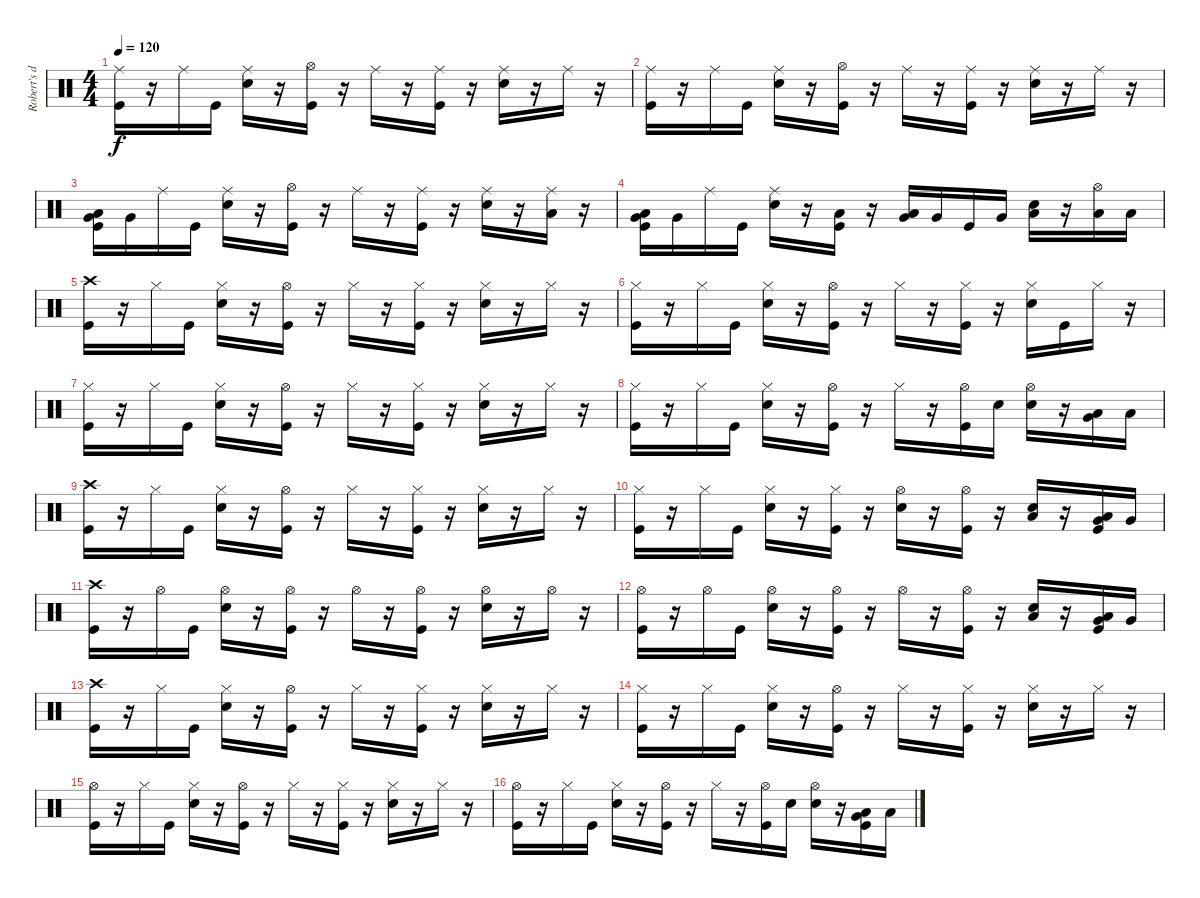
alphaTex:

\track ("Robert's drums" "Robert's d") {instrument percussion}
\staff {score}
\articulation defaults
\ts (4 4)
\tempo 120
\clef neutral
\ks c
("Ride (middle)" "Kick (hit)").16{dy f} r.16 "Ride (middle)".16 "Kick (hit)".16 ("Ride (middle)" "Electric Snare (hit)").16 r.16 ("Hi-Hat (open)" "Kick (hit)").16 r.16 "Ride (middle)".16 r.16 ("Kick (hit)" "Ride (middle)").16 r.16 ("Ride (middle)" "Electric Snare (hit)").16 r.16 "Ride (middle)".16 r.16 |
("Ride (middle)" "Kick (hit)").16 r.16 "Ride (middle)".16 "Kick (hit)".16 ("Ride (middle)" "Electric Snare (hit)").16 r.16 ("Hi-Hat (open)" "Kick (hit)").16 r.16 "Ride (middle)".16 r.16 ("Ride (middle)" "Kick (hit)").16 r.16 ("Ride (middle)" "Electric Snare (hit)").16 r.16 "Ride (middle)".16 r.16 |
("Very Low Tom (hit)" "Low Tom (hit)" "Kick (hit)").16 "Very Low Tom (hit)".16 "Ride (middle)".16 "Kick (hit)".16 ("Ride (middle)" "Electric Snare (hit)").16 r.16 ("Hi-Hat (open)" "Kick (hit)").16 r.16 "Ride (middle)".16 r.16 ("Ride (middle)" "Kick (hit)").16 r.16 ("Electric Snare (hit)" "Ride (middle)").16 r.16 ("Low Floor Tom (hit)" "Ride (middle)").16 r.16 |
("Very Low Tom (hit)" "Low Tom (hit)" "Kick (hit)").16 "Very Low Tom (hit)".16 "Ride (middle)".16 "Kick (hit)".16 ("Electric Snare (hit)" "Ride (middle)").16 r.16 ("Low Floor Tom (hit)" "Kick (hit)").16 r.16 ("Very Low Tom (hit)" "Low Tom (hit)").16 "Very Low Tom (hit)".16 "Kick (hit)".16 "Very Low Tom (hit)".16 ("Low Tom (hit)" "Electric Snare (hit)").16 r.16 ("Low Tom (hit)" "Hi-Hat (open)").16 "Low Tom (hit)".16 |
("Crash high (hit)" "Kick (hit)").16 r.16 "Hi-Hat (closed)".16 "Kick (hit)".16 ("Hi-Hat (closed)" "Electric Snare (hit)").16 r.16 ("Hi-Hat (open)" "Kick (hit)").16 r.16 "Hi-Hat (closed)".16 r.16 ("Kick (hit)" "Hi-Hat (closed)").16 r.16 ("Hi-Hat (closed)" "Electric Snare (hit)").16 r.16 "Hi-Hat (closed)".16 r.16 |
("Hi-Hat (closed)" "Kick (hit)").16 r.16 "Hi-Hat (closed)".16 "Kick (hit)".16 ("Hi-Hat (closed)" "Electric Snare (hit)").16 r.16 ("Hi-Hat (open)" "Kick (hit)").16 r.16 "Hi-Hat (closed)".16 r.16 ("Kick (hit)" "Hi-Hat (closed)").16 r.16 ("Electric Snare (hit)" "Hi-Hat (closed)").16 "Kick (hit)".16 "Hi-Hat (closed)".16 r.16 |
("Kick (hit)" "Hi-Hat (closed)").16 r.16 "Hi-Hat (closed)".16 "Kick (hit)".16 ("Electric Snare (hit)" "Hi-Hat (closed)").16 r.16 ("Hi-Hat (open)" "Kick (hit)").16 r.16 "Hi-Hat (closed)".16 r.16 ("Hi-Hat (closed)" "Kick (hit)").16 r.16 ("Electric Snare (hit)" "Hi-Hat (closed)").16 r.16 "Hi-Hat (closed)".16 r.16 |
("Kick (hit)" "Hi-Hat (closed)").16 r.16 "Hi-Hat (closed)".16 "Kick (hit)".16 ("Hi-Hat (closed)" "Electric Snare (hit)").16 r.16 ("Hi-Hat (open)" "Kick (hit)").16 r.16 "Hi-Hat (closed)".16 r.16 ("Kick (hit)" "Hi-Hat (open)").16 "Electric Snare (hit)".16 ("Hi-Hat (open)" "Electric Snare (hit)").16 r.16 ("Low Floor Tom (hit)" "Very Low Tom (hit)").16 "Low Floor Tom (hit)".16 |
("Crash high (hit)" "Kick (hit)").16 r.16 "Hi-Hat (closed)".16 "Kick (hit)".16 ("Electric Snare (hit)" "Hi-Hat (closed)").16 r.16 ("Hi-Hat (open)" "Kick (hit)").16 r.16 "Hi-Hat (closed)".16 r.16 ("Kick (hit)" "Hi-Hat (closed)").16 r.16 ("Electric Snare (hit)" "Hi-Hat (closed)").16 r.16 "Hi-Hat (closed)".16 r.16 |
("Hi-Hat (closed)" "Kick (hit)").16 r.16 "Hi-Hat (closed)".16 "Kick (hit)".16 ("Hi-Hat (closed)" "Electric Snare (hit)").16 r.16 ("Kick (hit)" "Hi-Hat (closed)").16 r.16 ("Hi-Hat (open)" "Electric Snare (hit)").16 r.16 ("Hi-Hat (open)" "Kick (hit)").16 r.16 ("Low Tom (hit)" "Electric Snare (hit)").16 r.16 ("Low Tom (hit)" "Very Low Tom (hit)" "Kick (hit)").16 "Very Low Tom (hit)".16 |
("Crash high (hit)" "Kick (hit)").16 r.16 "Hi-Hat (open)".16 "Kick (hit)".16 ("Hi-Hat (open)" "Electric Snare (hit)").16 r.16 ("Hi-Hat (open)" "Kick (hit)").16 r.16 "Hi-Hat (open)".16 r.16 ("Hi-Hat (open)" "Kick (hit)").16 r.16 ("Hi-Hat (open)" "Electric Snare (hit)").16 r.16 "Hi-Hat (open)".16 r.16 |
("Kick (hit)" "Hi-Hat (open)").16 r.16 "Hi-Hat (open)".16 "Kick (hit)".16 ("Hi-Hat (open)" "Electric Snare (hit)").16 r.16 ("Hi-Hat (open)" "Kick (hit)").16 r.16 "Hi-Hat (open)".16 r.16 ("Kick (hit)" "Hi-Hat (open)").16 r.16 ("Low Tom (hit)" "Electric Snare (hit)").16 r.16 ("Low Tom (hit)" "Very Low Tom (hit)" "Kick (hit)").16 "Very Low Tom (hit)".16 |
("Crash high (hit)" "Kick (hit)").16 r.16 "Hi-Hat (closed)".16 "Kick (hit)".16 ("Hi-Hat (closed)" "Electric Snare (hit)").16 r.16 ("Hi-Hat (open)" "Kick (hit)").16 r.16 "Hi-Hat (closed)".16 r.16 ("Kick (hit)" "Hi-Hat (closed)").16 r.16 ("Hi-Hat (closed)" "Electric Snare (hit)").16 r.16 "Hi-Hat (closed)".16 r.16 |
("Hi-Hat (closed)" "Kick (hit)").16 r.16 "Hi-Hat (closed)".16 "Kick (hit)".16 ("Hi-Hat (closed)" "Electric Snare (hit)").16 r.16 ("Hi-Hat (open)" "Kick (hit)").16 r.16 "Hi-Hat (closed)".16 r.16 ("Kick (hit)" "Hi-Hat (closed)").16 r.16 ("Electric Snare (hit)" "Hi-Hat (closed)").16 r.16 "Hi-Hat (closed)".16 r.16 |
("Kick (hit)" "Hi-Hat (open)").16 r.16 "Hi-Hat (closed)".16 "Kick (hit)".16 ("Electric Snare (hit)" "Hi-Hat (closed)").16 r.16 ("Hi-Hat (open)" "Kick (hit)").16 r.16 "Hi-Hat (closed)".16 r.16 ("Hi-Hat (closed)" "Kick (hit)").16 r.16 ("Electric Snare (hit)" "Hi-Hat (closed)").16 r.16 "Hi-Hat (closed)".16 r.16 |
("Kick (hit)" "Hi-Hat (open)").16 r.16 "Hi-Hat (closed)".16 "Kick (hit)".16 ("Hi-Hat (closed)" "Electric Snare (hit)").16 r.16 ("Hi-Hat (open)" "Kick (hit)").16 r.16 "Hi-Hat (closed)".16 r.16 ("Kick (hit)" "Hi-Hat (open)").16 "Electric Snare (hit)".16 ("Hi-Hat (open)" "Electric Snare (hit)").16 r.16 ("Kick (hit)" "Low Floor Tom (hit)" "Very Low Tom (hit)").16 "Low Floor Tom (hit)".16
